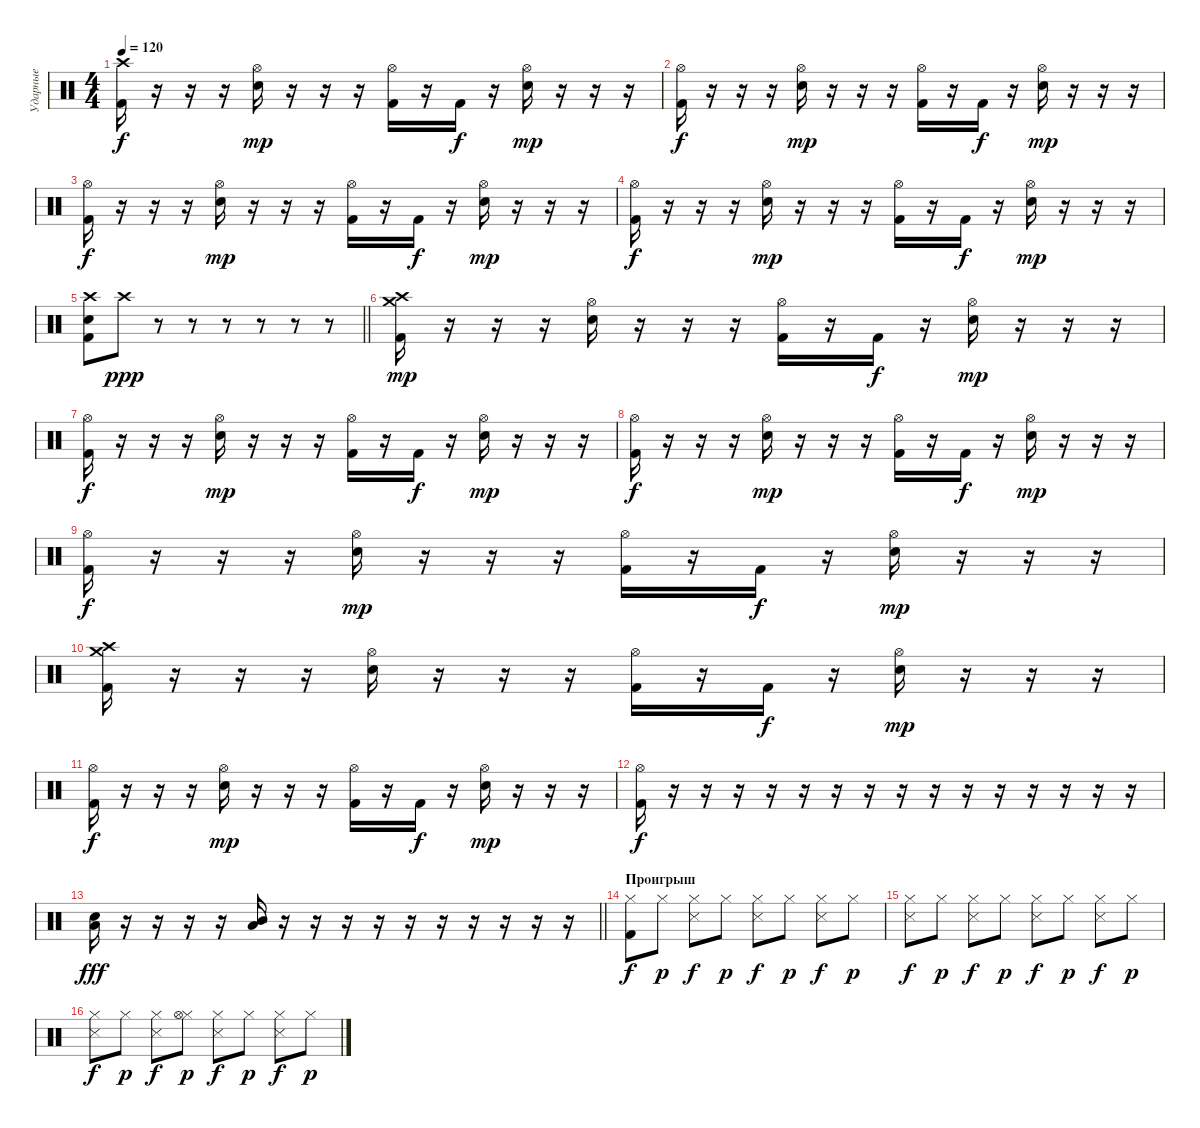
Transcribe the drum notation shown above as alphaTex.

\track ("Ударные" "Ударные") {instrument percussion}
\staff {score}
\articulation defaults
\ts (4 4)
\tempo 120
\clef neutral
\ks c
("Kick (hit) 2" "Crash high (hit)").16{dy f} r.16 r.16 r.16 ("Snare (hit) 2" "Hi-Hat (open)").16{dy mp} r.16 r.16 r.16 ("Kick (hit) 2" "Hi-Hat (open)").16 r.16 "Kick (hit) 2".16{dy f} r.16 ("Snare (hit) 2" "Hi-Hat (open)").16{dy mp} r.16 r.16 r.16 |
("Kick (hit) 2" "Hi-Hat (open)").16{dy f} r.16 r.16 r.16 ("Snare (hit) 2" "Hi-Hat (open)").16{dy mp} r.16 r.16 r.16 ("Kick (hit) 2" "Hi-Hat (open)").16 r.16 "Kick (hit) 2".16{dy f} r.16 ("Snare (hit) 2" "Hi-Hat (open)").16{dy mp} r.16 r.16 r.16 |
("Kick (hit) 2" "Hi-Hat (open)").16{dy f} r.16 r.16 r.16 ("Snare (hit) 2" "Hi-Hat (open)").16{dy mp} r.16 r.16 r.16 ("Kick (hit) 2" "Hi-Hat (open)").16 r.16 "Kick (hit) 2".16{dy f} r.16 ("Snare (hit) 2" "Hi-Hat (open)").16{dy mp} r.16 r.16 r.16 |
("Kick (hit) 2" "Hi-Hat (open)").16{dy f} r.16 r.16 r.16 ("Snare (hit) 2" "Hi-Hat (open)").16{dy mp} r.16 r.16 r.16 ("Kick (hit) 2" "Hi-Hat (open)").16 r.16 "Kick (hit) 2".16{dy f} r.16 ("Snare (hit) 2" "Hi-Hat (open)").16{dy mp} r.16 r.16 r.16 |
\barLineRight lightlight
("Crash high (hit)" "Snare (hit) 2" "Kick (hit) 2").8 "Crash high (hit)".8{dy ppp} r.8 r.8 r.8 r.8 r.8 r.8 |
("Kick (hit) 2" "Crash medium (hit)" "Crash high (hit)").16{dy mp} r.16 r.16 r.16 ("Snare (hit) 2" "Hi-Hat (open)").16 r.16 r.16 r.16 ("Kick (hit) 2" "Hi-Hat (open)").16 r.16 "Kick (hit) 2".16{dy f} r.16 ("Snare (hit) 2" "Hi-Hat (open)").16{dy mp} r.16 r.16 r.16 |
("Kick (hit) 2" "Hi-Hat (open)").16{dy f} r.16 r.16 r.16 ("Snare (hit) 2" "Hi-Hat (open)").16{dy mp} r.16 r.16 r.16 ("Kick (hit) 2" "Hi-Hat (open)").16 r.16 "Kick (hit) 2".16{dy f} r.16 ("Snare (hit) 2" "Hi-Hat (open)").16{dy mp} r.16 r.16 r.16 |
("Kick (hit) 2" "Hi-Hat (open)").16{dy f} r.16 r.16 r.16 ("Snare (hit) 2" "Hi-Hat (open)").16{dy mp} r.16 r.16 r.16 ("Kick (hit) 2" "Hi-Hat (open)").16 r.16 "Kick (hit) 2".16{dy f} r.16 ("Snare (hit) 2" "Hi-Hat (open)").16{dy mp} r.16 r.16 r.16 |
("Kick (hit) 2" "Hi-Hat (open)").16{dy f} r.16 r.16 r.16 ("Snare (hit) 2" "Hi-Hat (open)").16{dy mp} r.16 r.16 r.16 ("Kick (hit) 2" "Hi-Hat (open)").16 r.16 "Kick (hit) 2".16{dy f} r.16 ("Snare (hit) 2" "Hi-Hat (open)").16{dy mp} r.16 r.16 r.16 |
("Kick (hit) 2" "Crash medium (hit)" "Crash high (hit)").16 r.16 r.16 r.16 ("Snare (hit) 2" "Hi-Hat (open)").16 r.16 r.16 r.16 ("Kick (hit) 2" "Hi-Hat (open)").16 r.16 "Kick (hit) 2".16{dy f} r.16 ("Snare (hit) 2" "Hi-Hat (open)").16{dy mp} r.16 r.16 r.16 |
("Kick (hit) 2" "Hi-Hat (open)").16{dy f} r.16 r.16 r.16 ("Snare (hit) 2" "Hi-Hat (open)").16{dy mp} r.16 r.16 r.16 ("Kick (hit) 2" "Hi-Hat (open)").16 r.16 "Kick (hit) 2".16{dy f} r.16 ("Snare (hit) 2" "Hi-Hat (open)").16{dy mp} r.16 r.16 r.16 |
("Kick (hit) 2" "Hi-Hat (open)").16{dy f} r.16 r.16 r.16 r.16 r.16 r.16 r.16 r.16 r.16 r.16 r.16 r.16 r.16 r.16 r.16 |
\barLineRight lightlight
("Low Floor Tom (hit)" "Snare (hit) 2").16{dy fff} r.16 r.16 r.16 r.16 ("Low Floor Tom (hit)" "Mid Tom (hit)").16 r.16 r.16 r.16 r.16 r.16 r.16 r.16 r.16 r.16 r.16 |
\section ("" "Проигрыш")
("Hi-Hat (closed)" "Kick (hit) 2").8{dy f} "Hi-Hat (closed)".8{dy p} ("Hi-Hat (closed)" "Snare (side stick) 3").8{dy f} "Hi-Hat (closed)".8{dy p} ("Hi-Hat (closed)" "Snare (side stick) 3").8{dy f} "Hi-Hat (closed)".8{dy p} ("Hi-Hat (closed)" "Snare (side stick) 3").8{dy f} "Hi-Hat (closed)".8{dy p} |
("Hi-Hat (closed)" "Snare (side stick) 3").8{dy f} "Hi-Hat (closed)".8{dy p} ("Hi-Hat (closed)" "Snare (side stick) 3").8{dy f} "Hi-Hat (closed)".8{dy p} ("Hi-Hat (closed)" "Snare (side stick) 3").8{dy f} "Hi-Hat (closed)".8{dy p} ("Hi-Hat (closed)" "Snare (side stick) 3").8{dy f} "Hi-Hat (closed)".8{dy p} |
("Hi-Hat (closed)" "Snare (side stick) 3").8{dy f} "Hi-Hat (closed)".8{dy p} ("Hi-Hat (closed)" "Snare (side stick) 3").8{dy f} ("Hi-Hat (closed)" "Hi-Hat (open)").8{dy p} ("Hi-Hat (closed)" "Snare (side stick) 3").8{dy f} "Hi-Hat (closed)".8{dy p} ("Hi-Hat (closed)" "Snare (side stick) 3").8{dy f} "Hi-Hat (closed)".8{dy p}
